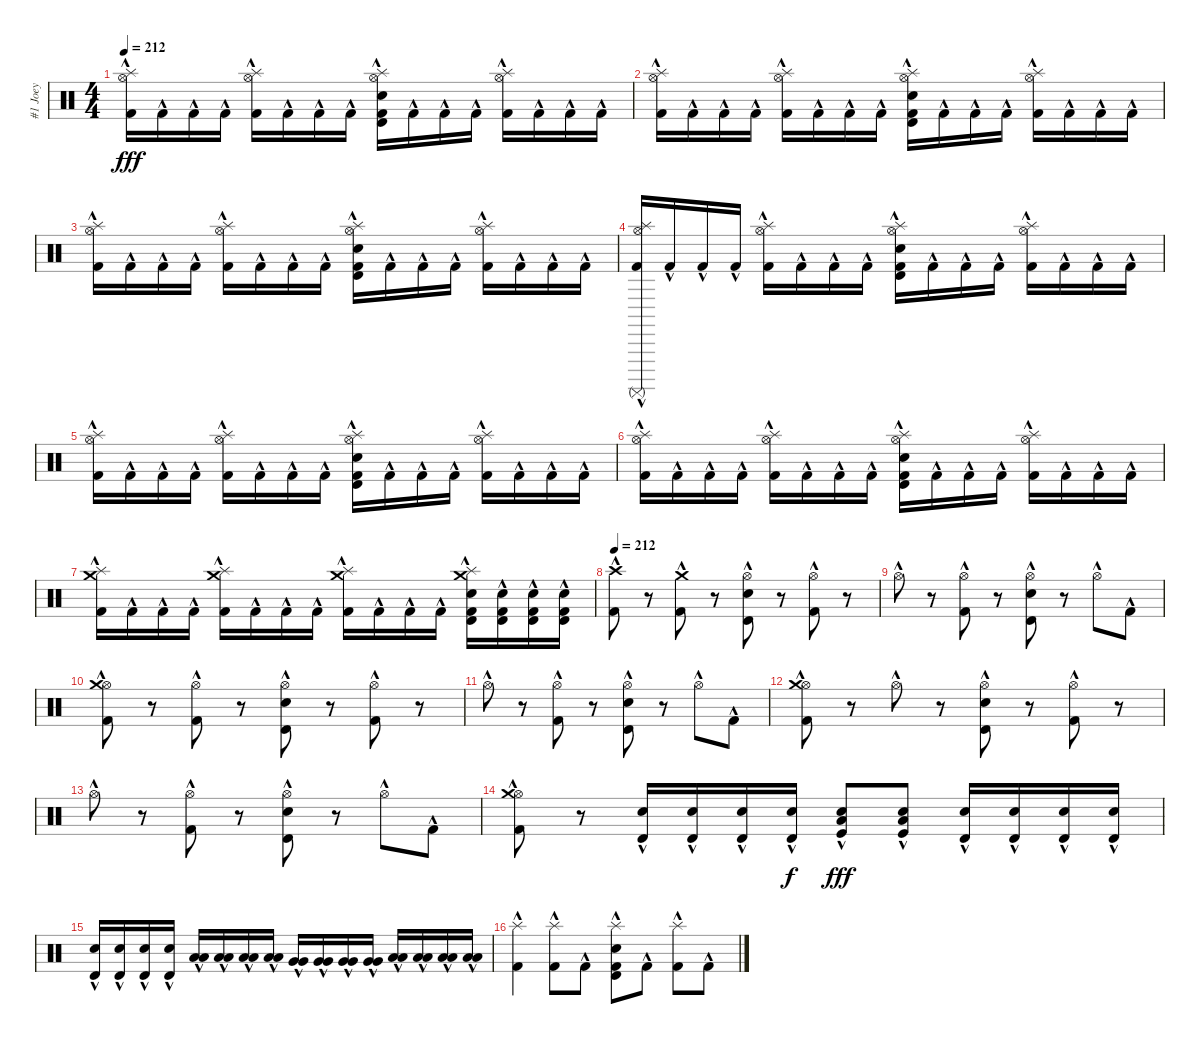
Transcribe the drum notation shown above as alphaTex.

\track ("#1 Joey" "#1 Joey") {instrument percussion}
\staff {score}
\articulation defaults
\ts (4 4)
\tempo 212
\clef neutral
\ks c
("Hi-Hat (open)"{hac} "Splash (hit)"{hac} "Kick (hit) 2"{hac}).16{dy fff} "Kick (hit) 2"{hac}.16 "Kick (hit) 2"{hac}.16 "Kick (hit) 2"{hac}.16 ("Hi-Hat (open)"{hac} "Splash (hit)"{hac} "Kick (hit) 2"{hac}).16 "Kick (hit) 2"{hac}.16 "Kick (hit) 2"{hac}.16 "Kick (hit) 2"{hac}.16 ("Hi-Hat (open)"{hac} "Splash (hit)"{hac} "Timbale high (hit)"{hac} "Electric Snare (hit)"{hac} "Kick (hit) 2"{hac}).16 "Kick (hit) 2"{hac}.16 "Kick (hit) 2"{hac}.16 "Kick (hit) 2"{hac}.16 ("Hi-Hat (open)"{hac} "Splash (hit)"{hac} "Kick (hit) 2"{hac}).16 "Kick (hit) 2"{hac}.16 "Kick (hit) 2"{hac}.16 "Kick (hit) 2"{hac}.16 |
("Hi-Hat (open)"{hac} "Splash (hit)"{hac} "Kick (hit) 2"{hac}).16 "Kick (hit) 2"{hac}.16 "Kick (hit) 2"{hac}.16 "Kick (hit) 2"{hac}.16 ("Hi-Hat (open)"{hac} "Splash (hit)"{hac} "Kick (hit) 2"{hac}).16 "Kick (hit) 2"{hac}.16 "Kick (hit) 2"{hac}.16 "Kick (hit) 2"{hac}.16 ("Hi-Hat (open)"{hac} "Splash (hit)"{hac} "Timbale high (hit)"{hac} "Electric Snare (hit)"{hac} "Kick (hit) 2"{hac}).16 "Kick (hit) 2"{hac}.16 "Kick (hit) 2"{hac}.16 "Kick (hit) 2"{hac}.16 ("Hi-Hat (open)"{hac} "Splash (hit)"{hac} "Kick (hit) 2"{hac}).16 "Kick (hit) 2"{hac}.16 "Kick (hit) 2"{hac}.16 "Kick (hit) 2"{hac}.16 |
("Hi-Hat (open)"{hac} "Splash (hit)"{hac} "Kick (hit) 2"{hac}).16 "Kick (hit) 2"{hac}.16 "Kick (hit) 2"{hac}.16 "Kick (hit) 2"{hac}.16 ("Hi-Hat (open)"{hac} "Splash (hit)"{hac} "Kick (hit) 2"{hac}).16 "Kick (hit) 2"{hac}.16 "Kick (hit) 2"{hac}.16 "Kick (hit) 2"{hac}.16 ("Hi-Hat (open)"{hac} "Splash (hit)"{hac} "Timbale high (hit)"{hac} "Electric Snare (hit)"{hac} "Kick (hit) 2"{hac}).16 "Kick (hit) 2"{hac}.16 "Kick (hit) 2"{hac}.16 "Kick (hit) 2"{hac}.16 ("Hi-Hat (open)"{hac} "Splash (hit)"{hac} "Kick (hit) 2"{hac}).16 "Kick (hit) 2"{hac}.16 "Kick (hit) 2"{hac}.16 "Kick (hit) 2"{hac}.16 |
("Hi-Hat (open)"{hac} "Splash (hit)"{hac} "Surdo (mute)"{hac} "Kick (hit) 2"{hac}).16 "Kick (hit) 2"{hac}.16 "Kick (hit) 2"{hac}.16 "Kick (hit) 2"{hac}.16 ("Hi-Hat (open)"{hac} "Splash (hit)"{hac} "Kick (hit) 2"{hac}).16 "Kick (hit) 2"{hac}.16 "Kick (hit) 2"{hac}.16 "Kick (hit) 2"{hac}.16 ("Hi-Hat (open)"{hac} "Splash (hit)"{hac} "Timbale high (hit)"{hac} "Electric Snare (hit)"{hac} "Kick (hit) 2"{hac}).16 "Kick (hit) 2"{hac}.16 "Kick (hit) 2"{hac}.16 "Kick (hit) 2"{hac}.16 ("Hi-Hat (open)"{hac} "Splash (hit)"{hac} "Kick (hit) 2"{hac}).16 "Kick (hit) 2"{hac}.16 "Kick (hit) 2"{hac}.16 "Kick (hit) 2"{hac}.16 |
("Hi-Hat (open)"{hac} "Splash (hit)"{hac} "Kick (hit) 2"{hac}).16 "Kick (hit) 2"{hac}.16 "Kick (hit) 2"{hac}.16 "Kick (hit) 2"{hac}.16 ("Hi-Hat (open)"{hac} "Splash (hit)"{hac} "Kick (hit) 2"{hac}).16 "Kick (hit) 2"{hac}.16 "Kick (hit) 2"{hac}.16 "Kick (hit) 2"{hac}.16 ("Hi-Hat (open)"{hac} "Splash (hit)"{hac} "Timbale high (hit)"{hac} "Electric Snare (hit)"{hac} "Kick (hit) 2"{hac}).16 "Kick (hit) 2"{hac}.16 "Kick (hit) 2"{hac}.16 "Kick (hit) 2"{hac}.16 ("Hi-Hat (open)"{hac} "Splash (hit)"{hac} "Kick (hit) 2"{hac}).16 "Kick (hit) 2"{hac}.16 "Kick (hit) 2"{hac}.16 "Kick (hit) 2"{hac}.16 |
("Hi-Hat (open)"{hac} "Splash (hit)"{hac} "Kick (hit) 2"{hac}).16 "Kick (hit) 2"{hac}.16 "Kick (hit) 2"{hac}.16 "Kick (hit) 2"{hac}.16 ("Hi-Hat (open)"{hac} "Splash (hit)"{hac} "Kick (hit) 2"{hac}).16 "Kick (hit) 2"{hac}.16 "Kick (hit) 2"{hac}.16 "Kick (hit) 2"{hac}.16 ("Hi-Hat (open)"{hac} "Splash (hit)"{hac} "Timbale high (hit)"{hac} "Electric Snare (hit)"{hac} "Kick (hit) 2"{hac}).16 "Kick (hit) 2"{hac}.16 "Kick (hit) 2"{hac}.16 "Kick (hit) 2"{hac}.16 ("Hi-Hat (open)"{hac} "Splash (hit)"{hac} "Kick (hit) 2"{hac}).16 "Kick (hit) 2"{hac}.16 "Kick (hit) 2"{hac}.16 "Kick (hit) 2"{hac}.16 |
("Crash medium (hit)"{hac} "Splash (hit)"{hac} "Kick (hit) 2"{hac}).16 "Kick (hit) 2"{hac}.16 "Kick (hit) 2"{hac}.16 "Kick (hit) 2"{hac}.16 ("Crash medium (hit)"{hac} "Splash (hit)"{hac} "Kick (hit) 2"{hac}).16 "Kick (hit) 2"{hac}.16 "Kick (hit) 2"{hac}.16 "Kick (hit) 2"{hac}.16 ("Crash medium (hit)"{hac} "Splash (hit)"{hac} "Kick (hit) 2"{hac}).16 "Kick (hit) 2"{hac}.16 "Kick (hit) 2"{hac}.16 "Kick (hit) 2"{hac}.16 ("Crash medium (hit)"{hac} "Splash (hit)"{hac} "Timbale high (hit)"{hac} "Electric Snare (hit)"{hac} "Kick (hit) 2"{hac}).16 ("Timbale high (hit)"{hac} "Electric Snare (hit)"{hac} "Kick (hit) 2"{hac}).16 ("Timbale high (hit)"{hac} "Electric Snare (hit)"{hac} "Kick (hit) 2"{hac}).16 ("Timbale high (hit)"{hac} "Electric Snare (hit)"{hac} "Kick (hit) 2"{hac}).16 |
\tempo 212
("Crash high (hit)"{hac} "Kick (hit) 2"{hac}).8 r.8 ("Crash medium (hit)"{hac} "Kick (hit) 2"{hac}).8 r.8 ("Hi-Hat (open)"{hac} "Timbale high (hit)"{hac} "Electric Snare (hit)"{hac}).8 r.8 ("Hi-Hat (open)"{hac} "Kick (hit) 2"{hac}).8 r.8 |
"Hi-Hat (open)"{hac}.8 r.8 ("Hi-Hat (open)"{hac} "Kick (hit) 2"{hac}).8 r.8 ("Hi-Hat (open)"{hac} "Timbale high (hit)"{hac} "Electric Snare (hit)"{hac}).8 r.8 "Hi-Hat (open)"{hac}.8 "Kick (hit) 2"{hac}.8 |
("Hi-Hat (open)"{hac} "Crash medium (hit)"{hac} "Kick (hit) 2"{hac}).8 r.8 ("Hi-Hat (open)"{hac} "Kick (hit) 2"{hac}).8 r.8 ("Hi-Hat (open)"{hac} "Timbale high (hit)"{hac} "Electric Snare (hit)"{hac}).8 r.8 ("Hi-Hat (open)"{hac} "Kick (hit) 2"{hac}).8 r.8 |
"Hi-Hat (open)"{hac}.8 r.8 ("Hi-Hat (open)"{hac} "Kick (hit) 2"{hac}).8 r.8 ("Hi-Hat (open)"{hac} "Timbale high (hit)"{hac} "Electric Snare (hit)"{hac}).8 r.8 "Hi-Hat (open)"{hac}.8 "Kick (hit) 2"{hac}.8 |
("Hi-Hat (open)"{hac} "Crash medium (hit)"{hac} "Kick (hit) 2"{hac}).8 r.8 "Hi-Hat (open)"{hac}.8 r.8 ("Hi-Hat (open)"{hac} "Timbale high (hit)"{hac} "Electric Snare (hit)"{hac}).8 r.8 ("Hi-Hat (open)"{hac} "Kick (hit) 2"{hac}).8 r.8 |
"Hi-Hat (open)"{hac}.8 r.8 ("Hi-Hat (open)"{hac} "Kick (hit) 2"{hac}).8 r.8 ("Hi-Hat (open)"{hac} "Timbale high (hit)"{hac} "Electric Snare (hit)"{hac}).8 r.8 "Hi-Hat (open)"{hac}.8 "Kick (hit) 2"{hac}.8 |
("Hi-Hat (open)"{hac} "Crash medium (hit)"{hac} "Kick (hit) 2"{hac}).8 r.8 ("Timbale high (hit)"{hac} "Electric Snare (hit)"{hac}).16 ("Timbale high (hit)"{hac} "Electric Snare (hit)"{hac}).16 ("Timbale high (hit)"{hac} "Electric Snare (hit)"{hac}).16 ("Timbale high (hit)"{hac} "Electric Snare (hit)"{hac}).16{dy f} ("Low Floor Tom (hit)"{hac} "Electric Snare (hit)"{hac} "Kick (hit)"{hac}).8{dy fff} ("Low Floor Tom (hit)"{hac} "Electric Snare (hit)"{hac} "Kick (hit)"{hac}).8 ("Timbale high (hit)"{hac} "Electric Snare (hit)"{hac}).16 ("Timbale high (hit)"{hac} "Electric Snare (hit)"{hac}).16 ("Timbale high (hit)"{hac} "Electric Snare (hit)"{hac}).16 ("Timbale high (hit)"{hac} "Electric Snare (hit)"{hac}).16 |
("Timbale high (hit)"{hac} "Electric Snare (hit)"{hac}).16 ("Timbale high (hit)"{hac} "Electric Snare (hit)"{hac}).16 ("Timbale high (hit)"{hac} "Electric Snare (hit)"{hac}).16 ("Timbale high (hit)"{hac} "Electric Snare (hit)"{hac}).16 ("Low Tom (hit)"{hac} "Low Tom (hit)"{hac}).16 ("Low Tom (hit)"{hac} "Low Tom (hit)"{hac}).16 ("Low Tom (hit)"{hac} "Low Tom (hit)"{hac}).16 ("Low Tom (hit)"{hac} "Low Tom (hit)"{hac}).16 ("Very Low Tom (hit)"{hac} "Very Low Tom (hit)"{hac}).16 ("Very Low Tom (hit)"{hac} "Very Low Tom (hit)"{hac}).16 ("Very Low Tom (hit)"{hac} "Very Low Tom (hit)"{hac}).16 ("Very Low Tom (hit)"{hac} "Very Low Tom (hit)"{hac}).16 ("Low Floor Tom (hit)"{hac} "Low Floor Tom (hit)"{hac}).16 ("Low Floor Tom (hit)"{hac} "Low Floor Tom (hit)"{hac}).16 ("Low Floor Tom (hit)"{hac} "Low Floor Tom (hit)"{hac}).16 ("Low Floor Tom (hit)"{hac} "Low Floor Tom (hit)"{hac}).16 |
("Splash (hit)"{hac} "Kick (hit) 2"{hac}).4 ("Splash (hit)"{hac} "Kick (hit) 2"{hac}).8 "Kick (hit) 2"{hac}.8 ("Splash (hit)"{hac} "Timbale high (hit)"{hac} "Electric Snare (hit)"{hac} "Kick (hit) 2"{hac}).8 "Kick (hit) 2"{hac}.8 ("Splash (hit)"{hac} "Kick (hit) 2"{hac}).8 "Kick (hit) 2"{hac}.8
